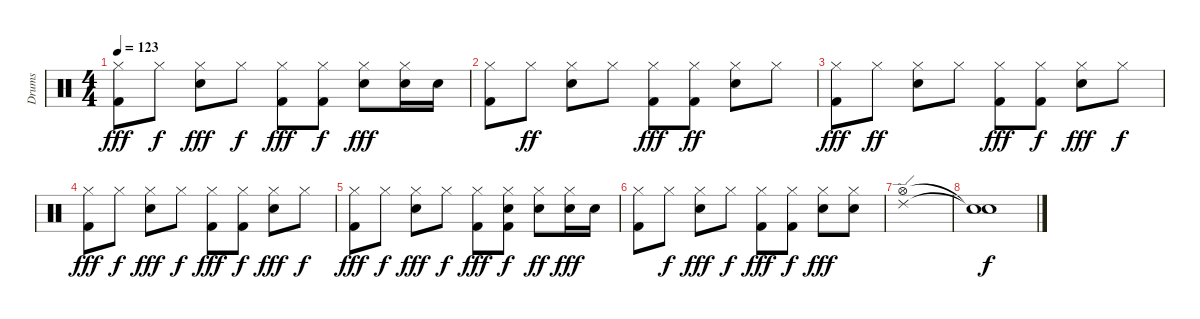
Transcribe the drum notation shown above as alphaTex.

\track ("Drums" "Drums") {instrument percussion}
\staff {score}
\articulation defaults
\ts (4 4)
\tempo 123
\clef neutral
\ks c
("Kick (hit) 2" "Hi-Hat (closed)").8{dy fff} "Hi-Hat (closed)".8{dy f} ("Snare (hit) 2" "Hi-Hat (closed)").8{dy fff} "Hi-Hat (closed)".8{dy f} ("Kick (hit) 2" "Hi-Hat (closed)").8{dy fff} ("Kick (hit) 2" "Hi-Hat (closed)").8{dy f} ("Snare (hit) 2" "Hi-Hat (closed)").8{dy fff} ("Snare (hit) 2" "Hi-Hat (closed)").16 "Snare (hit) 2".16 |
("Kick (hit) 2" "Hi-Hat (closed)").8 "Hi-Hat (closed)".8{dy ff} ("Snare (hit) 2" "Hi-Hat (closed)").8 "Hi-Hat (closed)".8 ("Kick (hit) 2" "Hi-Hat (closed)").8{dy fff} ("Kick (hit) 2" "Hi-Hat (closed)").8{dy ff} ("Snare (hit) 2" "Hi-Hat (closed)").8 "Hi-Hat (closed)".8 |
("Kick (hit) 2" "Hi-Hat (closed)").8{dy fff} "Hi-Hat (closed)".8{dy ff} ("Snare (hit) 2" "Hi-Hat (closed)").8 "Hi-Hat (closed)".8 ("Kick (hit) 2" "Hi-Hat (closed)").8{dy fff} ("Kick (hit) 2" "Hi-Hat (closed)").8{dy f} ("Snare (hit) 2" "Hi-Hat (closed)").8{dy fff} "Hi-Hat (closed)".8{dy f} |
("Kick (hit) 2" "Hi-Hat (closed)").8{dy fff} "Hi-Hat (closed)".8{dy f} ("Snare (hit) 2" "Hi-Hat (closed)").8{dy fff} "Hi-Hat (closed)".8{dy f} ("Kick (hit) 2" "Hi-Hat (closed)").8{dy fff} ("Kick (hit) 2" "Hi-Hat (closed)").8{dy f} ("Snare (hit) 2" "Hi-Hat (closed)").8{dy fff} "Hi-Hat (closed)".8{dy f} |
("Kick (hit) 2" "Hi-Hat (closed)").8{dy fff} "Hi-Hat (closed)".8{dy f} ("Snare (hit) 2" "Hi-Hat (closed)").8{dy fff} "Hi-Hat (closed)".8{dy f} ("Kick (hit) 2" "Hi-Hat (closed)").8{dy fff} ("Kick (hit) 2" "Snare (hit) 2" "Hi-Hat (closed)").8{dy f} ("Snare (hit) 2" "Hi-Hat (closed)").8{dy ff} ("Snare (hit) 2" "Hi-Hat (closed)").16{dy fff} "Snare (hit) 2".16 |
("Kick (hit) 2" "Hi-Hat (closed)").8 "Hi-Hat (closed)".8{dy f} ("Snare (hit) 2" "Hi-Hat (closed)").8{dy fff} "Hi-Hat (closed)".8{dy f} ("Kick (hit) 2" "Hi-Hat (closed)").8{dy fff} ("Kick (hit) 2" "Hi-Hat (closed)").8{dy f} ("Snare (hit) 2" "Hi-Hat (closed)").8{dy fff} ("Snare (hit) 2" "Hi-Hat (closed)").8 |
("Ride (edge) 2" "Hi-Hat (open)").1 |
("Snare (hit)"{t} "Snare (hit)"{t}).1{dy f}
